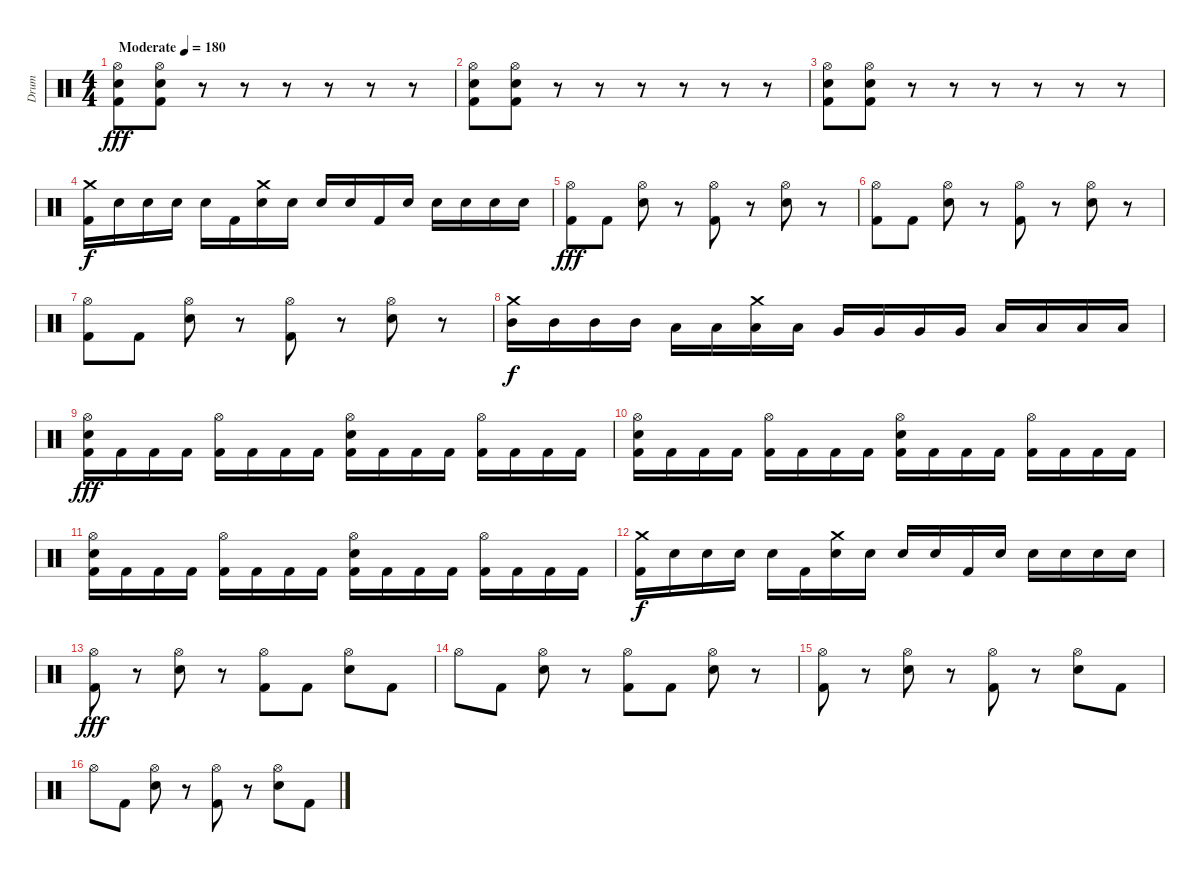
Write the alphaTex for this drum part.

\track ("Drum" "Drum") {instrument percussion}
\staff {score}
\articulation defaults
\ts (4 4)
\tempo (180 "Moderate")
\clef neutral
\ks c
("Hi-Hat (open)" "Electric Snare (hit)" "Kick (hit) 2").8{dy fff} ("Hi-Hat (open)" "Electric Snare (hit)" "Kick (hit) 2").8 r.8 r.8 r.8 r.8 r.8 r.8 |
("Hi-Hat (open)" "Electric Snare (hit)" "Kick (hit) 2").8 ("Hi-Hat (open)" "Electric Snare (hit)" "Kick (hit) 2").8 r.8 r.8 r.8 r.8 r.8 r.8 |
("Hi-Hat (open)" "Electric Snare (hit)" "Kick (hit) 2").8 ("Hi-Hat (open)" "Electric Snare (hit)" "Kick (hit) 2").8 r.8 r.8 r.8 r.8 r.8 r.8 |
("Crash medium (hit)" "Kick (hit) 2").16{dy f} "Electric Snare (hit)".16 "Electric Snare (hit)".16 "Electric Snare (hit)".16 "Electric Snare (hit)".16 "Kick (hit) 2".16 ("Crash medium (hit)" "Electric Snare (hit)").16 "Electric Snare (hit)".16 "Electric Snare (hit)".16 "Electric Snare (hit)".16 "Kick (hit) 2".16 "Electric Snare (hit)".16 "Electric Snare (hit)".16 "Electric Snare (hit)".16 "Electric Snare (hit)".16 "Electric Snare (hit)".16 |
("Hi-Hat (open)" "Kick (hit) 2").8{dy fff} "Kick (hit) 2".8 ("Hi-Hat (open)" "Electric Snare (hit)").8 r.8 ("Hi-Hat (open)" "Kick (hit) 2").8 r.8 ("Hi-Hat (open)" "Electric Snare (hit)").8 r.8 |
("Hi-Hat (open)" "Kick (hit) 2").8 "Kick (hit) 2".8 ("Hi-Hat (open)" "Electric Snare (hit)").8 r.8 ("Hi-Hat (open)" "Kick (hit) 2").8 r.8 ("Hi-Hat (open)" "Electric Snare (hit)").8 r.8 |
("Hi-Hat (open)" "Kick (hit) 2").8 "Kick (hit) 2".8 ("Hi-Hat (open)" "Electric Snare (hit)").8 r.8 ("Hi-Hat (open)" "Kick (hit) 2").8 r.8 ("Hi-Hat (open)" "Electric Snare (hit)").8 r.8 |
("Crash medium (hit)" "Mid Tom (hit)").16{dy f} "Mid Tom (hit)".16 "Mid Tom (hit)".16 "Mid Tom (hit)".16 "Low Tom (hit)".16 "Low Tom (hit)".16 ("Crash medium (hit)" "Low Tom (hit)").16 "Low Tom (hit)".16 "Very Low Tom (hit)".16 "Very Low Tom (hit)".16 "Very Low Tom (hit)".16 "Very Low Tom (hit)".16 "Low Floor Tom (hit)".16 "Low Floor Tom (hit)".16 "Low Floor Tom (hit)".16 "Low Floor Tom (hit)".16 |
("Hi-Hat (open)" "Electric Snare (hit)" "Kick (hit) 2").16{dy fff} "Kick (hit) 2".16 "Kick (hit) 2".16 "Kick (hit) 2".16 ("Hi-Hat (open)" "Kick (hit) 2").16 "Kick (hit) 2".16 "Kick (hit) 2".16 "Kick (hit) 2".16 ("Hi-Hat (open)" "Electric Snare (hit)" "Kick (hit) 2").16 "Kick (hit) 2".16 "Kick (hit) 2".16 "Kick (hit) 2".16 ("Hi-Hat (open)" "Kick (hit) 2").16 "Kick (hit) 2".16 "Kick (hit) 2".16 "Kick (hit) 2".16 |
("Hi-Hat (open)" "Electric Snare (hit)" "Kick (hit) 2").16 "Kick (hit) 2".16 "Kick (hit) 2".16 "Kick (hit) 2".16 ("Hi-Hat (open)" "Kick (hit) 2").16 "Kick (hit) 2".16 "Kick (hit) 2".16 "Kick (hit) 2".16 ("Hi-Hat (open)" "Electric Snare (hit)" "Kick (hit) 2").16 "Kick (hit) 2".16 "Kick (hit) 2".16 "Kick (hit) 2".16 ("Hi-Hat (open)" "Kick (hit) 2").16 "Kick (hit) 2".16 "Kick (hit) 2".16 "Kick (hit) 2".16 |
("Hi-Hat (open)" "Electric Snare (hit)" "Kick (hit) 2").16 "Kick (hit) 2".16 "Kick (hit) 2".16 "Kick (hit) 2".16 ("Hi-Hat (open)" "Kick (hit) 2").16 "Kick (hit) 2".16 "Kick (hit) 2".16 "Kick (hit) 2".16 ("Hi-Hat (open)" "Electric Snare (hit)" "Kick (hit) 2").16 "Kick (hit) 2".16 "Kick (hit) 2".16 "Kick (hit) 2".16 ("Hi-Hat (open)" "Kick (hit) 2").16 "Kick (hit) 2".16 "Kick (hit) 2".16 "Kick (hit) 2".16 |
("Crash medium (hit)" "Kick (hit) 2").16{dy f} "Electric Snare (hit)".16 "Electric Snare (hit)".16 "Electric Snare (hit)".16 "Electric Snare (hit)".16 "Kick (hit) 2".16 ("Crash medium (hit)" "Electric Snare (hit)").16 "Electric Snare (hit)".16 "Electric Snare (hit)".16 "Electric Snare (hit)".16 "Kick (hit) 2".16 "Electric Snare (hit)".16 "Electric Snare (hit)".16 "Electric Snare (hit)".16 "Electric Snare (hit)".16 "Electric Snare (hit)".16 |
("Hi-Hat (open)" "Kick (hit) 2").8{dy fff} r.8 ("Hi-Hat (open)" "Electric Snare (hit)").8 r.8 ("Hi-Hat (open)" "Kick (hit) 2").8 "Kick (hit) 2".8 ("Hi-Hat (open)" "Electric Snare (hit)").8 "Kick (hit) 2".8 |
"Hi-Hat (open)".8 "Kick (hit) 2".8 ("Hi-Hat (open)" "Electric Snare (hit)").8 r.8 ("Hi-Hat (open)" "Kick (hit) 2").8 "Kick (hit) 2".8 ("Hi-Hat (open)" "Electric Snare (hit)").8 r.8 |
("Hi-Hat (open)" "Kick (hit) 2").8 r.8 ("Hi-Hat (open)" "Electric Snare (hit)").8 r.8 ("Hi-Hat (open)" "Kick (hit) 2").8 r.8 ("Hi-Hat (open)" "Electric Snare (hit)").8 "Kick (hit) 2".8 |
"Hi-Hat (open)".8 "Kick (hit) 2".8 ("Hi-Hat (open)" "Electric Snare (hit)").8 r.8 ("Hi-Hat (open)" "Kick (hit) 2").8 r.8 ("Hi-Hat (open)" "Electric Snare (hit)").8 "Kick (hit) 2".8
